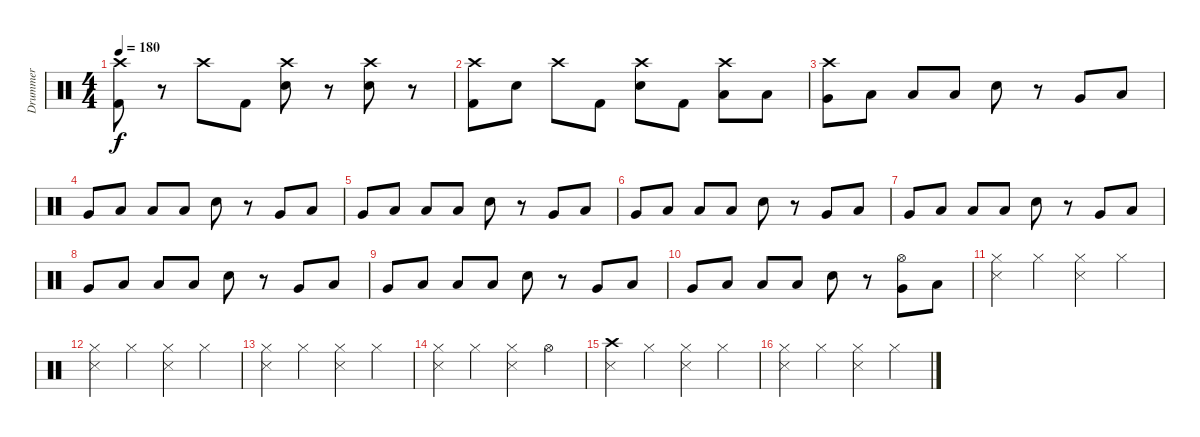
\track ("Drummer" "Drummer") {instrument percussion}
\staff {score}
\articulation defaults
\ts (4 4)
\tempo 180
\clef neutral
\ks c
("Crash high (hit)" "Kick (hit) 2").8{dy f} r.8 "Crash high (hit)".8 "Kick (hit) 2".8 ("Crash high (hit)" "Electric Snare (hit)").8 r.8 ("Crash high (hit)" "Electric Snare (hit)").8 r.8 |
("Crash high (hit)" "Kick (hit) 2").8 "Electric Snare (hit)".8 "Crash high (hit)".8 "Kick (hit) 2".8 ("Crash high (hit)" "Electric Snare (hit)").8 "Kick (hit) 2".8 ("Crash high (hit)" "Low Floor Tom (hit)").8 "Low Floor Tom (hit)".8 |
("Crash high (hit)" "Very Low Tom (hit)").8 "Low Floor Tom (hit)".8 "Low Floor Tom (hit)".8 "Low Floor Tom (hit)".8 "Electric Snare (hit)".8 r.8 "Very Low Tom (hit)".8 "Low Floor Tom (hit)".8 |
"Very Low Tom (hit)".8 "Low Floor Tom (hit)".8 "Low Floor Tom (hit)".8 "Low Floor Tom (hit)".8 "Electric Snare (hit)".8 r.8 "Very Low Tom (hit)".8 "Low Floor Tom (hit)".8 |
"Very Low Tom (hit)".8 "Low Floor Tom (hit)".8 "Low Floor Tom (hit)".8 "Low Floor Tom (hit)".8 "Electric Snare (hit)".8 r.8 "Very Low Tom (hit)".8 "Low Floor Tom (hit)".8 |
"Very Low Tom (hit)".8 "Low Floor Tom (hit)".8 "Low Floor Tom (hit)".8 "Low Floor Tom (hit)".8 "Electric Snare (hit)".8 r.8 "Very Low Tom (hit)".8 "Low Floor Tom (hit)".8 |
"Very Low Tom (hit)".8 "Low Floor Tom (hit)".8 "Low Floor Tom (hit)".8 "Low Floor Tom (hit)".8 "Electric Snare (hit)".8 r.8 "Very Low Tom (hit)".8 "Low Floor Tom (hit)".8 |
"Very Low Tom (hit)".8 "Low Floor Tom (hit)".8 "Low Floor Tom (hit)".8 "Low Floor Tom (hit)".8 "Electric Snare (hit)".8 r.8 "Very Low Tom (hit)".8 "Low Floor Tom (hit)".8 |
"Very Low Tom (hit)".8 "Low Floor Tom (hit)".8 "Low Floor Tom (hit)".8 "Low Floor Tom (hit)".8 "Electric Snare (hit)".8 r.8 "Very Low Tom (hit)".8 "Low Floor Tom (hit)".8 |
"Very Low Tom (hit)".8 "Low Floor Tom (hit)".8 "Low Floor Tom (hit)".8 "Low Floor Tom (hit)".8 "Electric Snare (hit)".8 r.8 ("Hi-Hat (open)" "Very Low Tom (hit)").8 "Low Floor Tom (hit)".8 |
("Hi-Hat (closed)" "Metronome (hit)").4 "Hi-Hat (closed)".4 ("Hi-Hat (closed)" "Metronome (hit)").4 "Hi-Hat (closed)".4 |
("Hi-Hat (closed)" "Metronome (hit)").4 "Hi-Hat (closed)".4 ("Hi-Hat (closed)" "Metronome (hit)").4 "Hi-Hat (closed)".4 |
("Hi-Hat (closed)" "Metronome (hit)").4 "Hi-Hat (closed)".4 ("Hi-Hat (closed)" "Metronome (hit)").4 "Hi-Hat (closed)".4 |
("Hi-Hat (closed)" "Metronome (hit)").4 "Hi-Hat (closed)".4 ("Hi-Hat (closed)" "Metronome (hit)").4 "Hi-Hat (open)".4 |
("Crash high (hit)" "Metronome (hit)").4 "Hi-Hat (closed)".4 ("Hi-Hat (closed)" "Metronome (hit)").4 "Hi-Hat (closed)".4 |
("Hi-Hat (closed)" "Metronome (hit)").4 "Hi-Hat (closed)".4 ("Hi-Hat (closed)" "Metronome (hit)").4 "Hi-Hat (closed)".4
